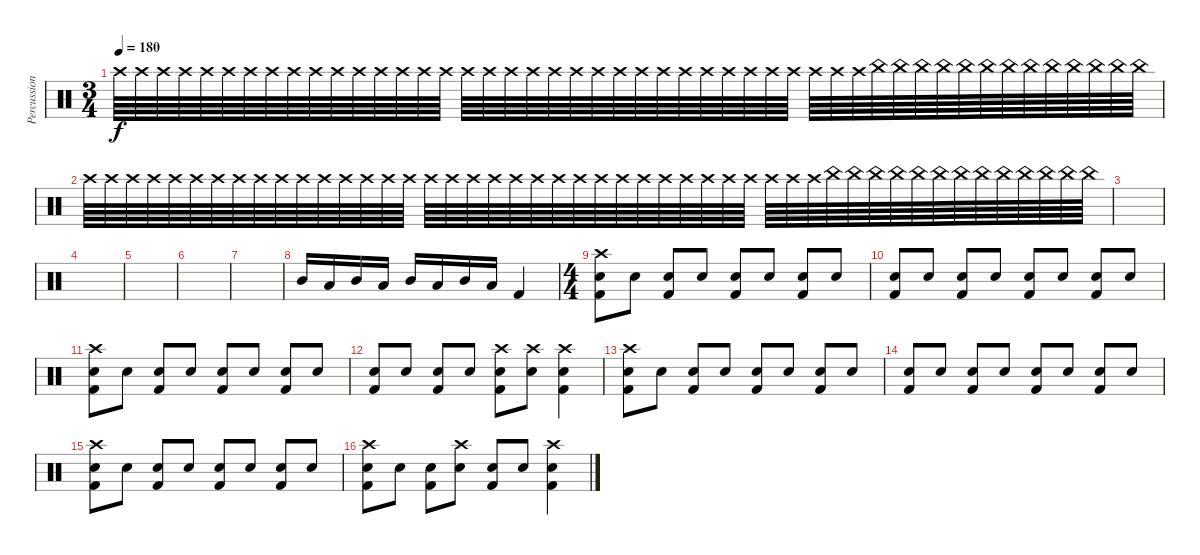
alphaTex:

\track ("Percussion" "Percussion") {instrument percussion}
\staff {score}
\articulation defaults
\ts (3 4)
\tempo 180
\clef neutral
\ks c "Crash high (hit)".64{dy f} "Crash high (hit)".64 "Crash high (hit)".64 "Crash high (hit)".64 "Crash high (hit)".64 "Crash high (hit)".64 "Crash high (hit)".64 "Crash high (hit)".64 "Crash high (hit)".64 "Crash high (hit)".64 "Crash high (hit)".64 "Crash high (hit)".64 "Crash high (hit)".64 "Crash high (hit)".64 "Crash high (hit)".64 "Crash high (hit)".64 "Crash high (hit)".64 "Crash high (hit)".64 "Crash high (hit)".64 "Crash high (hit)".64 "Crash high (hit)".64 "Crash high (hit)".64 "Crash high (hit)".64 "Crash high (hit)".64 "Crash high (hit)".64 "Crash high (hit)".64 "Crash high (hit)".64 "Crash high (hit)".64 "Crash high (hit)".64 "Crash high (hit)".64 "Crash high (hit)".64 "Crash high (hit)".64 "Crash high (hit)".64 "Crash high (hit)".64 "Crash high (hit)".64 "China (hit)".64 "China (hit)".64 "China (hit)".64 "China (hit)".64 "China (hit)".64 "China (hit)".64 "China (hit)".64 "China (hit)".64 "China (hit)".64 "China (hit)".64 "China (hit)".64 "China (hit)".64 "China (hit)".64
|
"Crash high (hit)".64 "Crash high (hit)".64 "Crash high (hit)".64 "Crash high (hit)".64 "Crash high (hit)".64 "Crash high (hit)".64 "Crash high (hit)".64 "Crash high (hit)".64 "Crash high (hit)".64 "Crash high (hit)".64 "Crash high (hit)".64 "Crash high (hit)".64 "Crash high (hit)".64 "Crash high (hit)".64 "Crash high (hit)".64 "Crash high (hit)".64 "Crash high (hit)".64 "Crash high (hit)".64 "Crash high (hit)".64 "Crash high (hit)".64 "Crash high (hit)".64 "Crash high (hit)".64 "Crash high (hit)".64 "Crash high (hit)".64 "Crash high (hit)".64 "Crash high (hit)".64 "Crash high (hit)".64 "Crash high (hit)".64 "Crash high (hit)".64 "Crash high (hit)".64 "Crash high (hit)".64 "Crash high (hit)".64 "Crash high (hit)".64 "Crash high (hit)".64 "Crash high (hit)".64 "China (hit)".64 "China (hit)".64 "China (hit)".64 "China (hit)".64 "China (hit)".64 "China (hit)".64 "China (hit)".64 "China (hit)".64 "China (hit)".64 "China (hit)".64 "China (hit)".64 "China (hit)".64 "China (hit)".64 |
|
|
|
|
|
"Mid Tom (hit)".16 "Low Tom (hit)".16 "Mid Tom (hit)".16 "Low Tom (hit)".16 "Mid Tom (hit)".16 "Low Tom (hit)".16 "Mid Tom (hit)".16 "Low Tom (hit)".16 "Kick (hit) 2".4 |
\ts (4 4)
("Crash high (hit)" "Snare (hit) 2" "Kick (hit) 2").8 "Snare (hit) 2".8 ("Snare (hit) 2" "Kick (hit) 2").8 "Snare (hit) 2".8 ("Snare (hit) 2" "Kick (hit) 2").8 "Snare (hit) 2".8 ("Snare (hit) 2" "Kick (hit) 2").8 "Snare (hit) 2".8 |
("Snare (hit) 2" "Kick (hit) 2").8 "Snare (hit) 2".8 ("Snare (hit) 2" "Kick (hit) 2").8 "Snare (hit) 2".8 ("Snare (hit) 2" "Kick (hit) 2").8 "Snare (hit) 2".8 ("Snare (hit) 2" "Kick (hit) 2").8 "Snare (hit) 2".8 |
("Crash high (hit)" "Snare (hit) 2" "Kick (hit) 2").8 "Snare (hit) 2".8 ("Snare (hit) 2" "Kick (hit) 2").8 "Snare (hit) 2".8 ("Snare (hit) 2" "Kick (hit) 2").8 "Snare (hit) 2".8 ("Snare (hit) 2" "Kick (hit) 2").8 "Snare (hit) 2".8 |
("Snare (hit) 2" "Kick (hit) 2").8 "Snare (hit) 2".8 ("Snare (hit) 2" "Kick (hit) 2").8 "Snare (hit) 2".8 ("Crash high (hit)" "Snare (hit) 2" "Kick (hit) 2").8 ("Crash high (hit)" "Snare (hit) 2").8 ("Crash high (hit)" "Snare (hit) 2" "Kick (hit) 2").4 |
("Crash high (hit)" "Snare (hit) 2" "Kick (hit) 2").8 "Snare (hit) 2".8 ("Snare (hit) 2" "Kick (hit) 2").8 "Snare (hit) 2".8 ("Snare (hit) 2" "Kick (hit) 2").8 "Snare (hit) 2".8 ("Snare (hit) 2" "Kick (hit) 2").8 "Snare (hit) 2".8 |
("Snare (hit) 2" "Kick (hit) 2").8 "Snare (hit) 2".8 ("Snare (hit) 2" "Kick (hit) 2").8 "Snare (hit) 2".8 ("Snare (hit) 2" "Kick (hit) 2").8 "Snare (hit) 2".8 ("Snare (hit) 2" "Kick (hit) 2").8 "Snare (hit) 2".8 |
("Crash high (hit)" "Snare (hit) 2" "Kick (hit) 2").8 "Snare (hit) 2".8 ("Snare (hit) 2" "Kick (hit) 2").8 "Snare (hit) 2".8 ("Snare (hit) 2" "Kick (hit) 2").8 "Snare (hit) 2".8 ("Snare (hit) 2" "Kick (hit) 2").8 "Snare (hit) 2".8 |
("Crash high (hit)" "Snare (hit) 2" "Kick (hit) 2").8 "Snare (hit) 2".8 ("Snare (hit) 2" "Kick (hit) 2").8 ("Crash high (hit)" "Snare (hit) 2").8 ("Snare (hit) 2" "Kick (hit) 2").8 "Snare (hit) 2".8 ("Crash high (hit)" "Snare (hit) 2" "Kick (hit) 2").4
